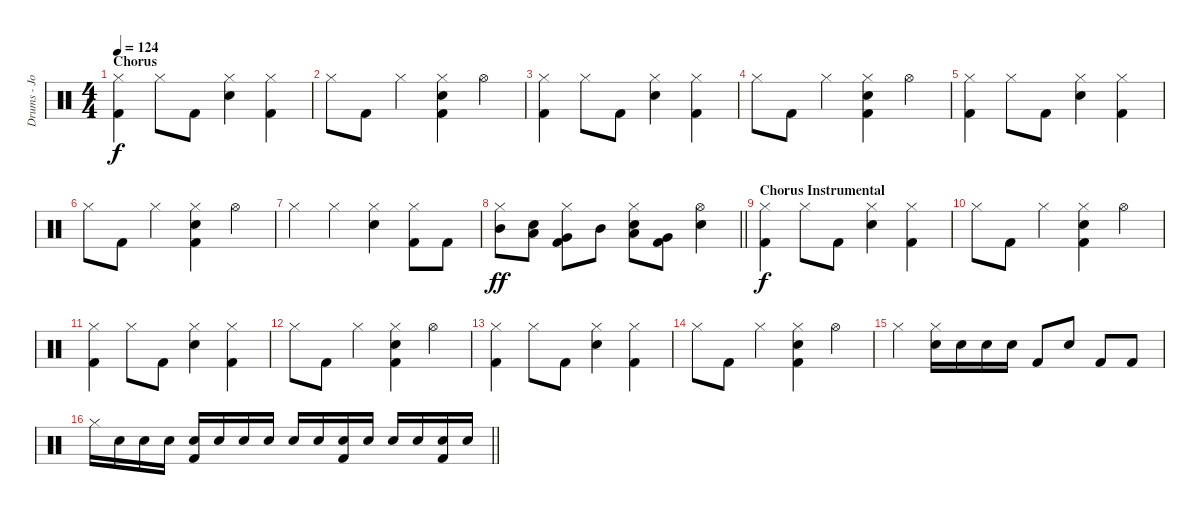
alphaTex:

\track ("Drums - John Humphrey" "Drums - Jo") {instrument percussion}
\staff {score}
\articulation defaults
\ts (4 4)
\section ("" "Chorus")
\tempo 124
\clef neutral
\ks c
("Hi-Hat (closed)" "Kick (hit) 2").4{dy f} "Hi-Hat (closed)".8 "Kick (hit) 2".8 ("Hi-Hat (closed)" "Electric Snare (hit)").4 ("Hi-Hat (closed)" "Kick (hit) 2").4 |
"Hi-Hat (closed)".8 "Kick (hit) 2".8 "Hi-Hat (closed)".4 ("Hi-Hat (closed)" "Electric Snare (hit)" "Kick (hit) 2").4 "Hi-Hat (open)".4 |
("Hi-Hat (closed)" "Kick (hit) 2").4 "Hi-Hat (closed)".8 "Kick (hit) 2".8 ("Hi-Hat (closed)" "Electric Snare (hit)").4 ("Hi-Hat (closed)" "Kick (hit) 2").4 |
"Hi-Hat (closed)".8 "Kick (hit) 2".8 "Hi-Hat (closed)".4 ("Hi-Hat (closed)" "Electric Snare (hit)" "Kick (hit) 2").4 "Hi-Hat (open)".4 |
("Hi-Hat (closed)" "Kick (hit) 2").4 "Hi-Hat (closed)".8 "Kick (hit) 2".8 ("Hi-Hat (closed)" "Electric Snare (hit)").4 ("Hi-Hat (closed)" "Kick (hit) 2").4 |
"Hi-Hat (closed)".8 "Kick (hit) 2".8 "Hi-Hat (closed)".4 ("Hi-Hat (closed)" "Electric Snare (hit)" "Kick (hit) 2").4 "Hi-Hat (open)".4 |
"Hi-Hat (closed)".4 "Hi-Hat (closed)".4 ("Hi-Hat (closed)" "Electric Snare (hit)").4 ("Hi-Hat (closed)" "Kick (hit) 2").8 "Kick (hit) 2".8 |
\barLineRight lightlight
("Hi-Hat (closed)" "Mid Tom (hit)").8{dy ff} ("Low Tom (hit)" "Electric Snare (hit)").8 ("Hi-Hat (closed)" "Very Low Tom (hit)" "Kick (hit) 2").8 "Mid Tom (hit)".8 ("Hi-Hat (closed)" "Low Tom (hit)" "Electric Snare (hit)").8 ("Very Low Tom (hit)" "Kick (hit) 2").8 ("Hi-Hat (open)" "Electric Snare (hit)").4 |
\section ("" "Chorus Instrumental")
("Hi-Hat (closed)" "Kick (hit) 2").4{dy f} "Hi-Hat (closed)".8 "Kick (hit) 2".8 ("Hi-Hat (closed)" "Electric Snare (hit)").4 ("Hi-Hat (closed)" "Kick (hit) 2").4 |
"Hi-Hat (closed)".8 "Kick (hit) 2".8 "Hi-Hat (closed)".4 ("Hi-Hat (closed)" "Electric Snare (hit)" "Kick (hit) 2").4 "Hi-Hat (open)".4 |
("Hi-Hat (closed)" "Kick (hit) 2").4 "Hi-Hat (closed)".8 "Kick (hit) 2".8 ("Hi-Hat (closed)" "Electric Snare (hit)").4 ("Hi-Hat (closed)" "Kick (hit) 2").4 |
"Hi-Hat (closed)".8 "Kick (hit) 2".8 "Hi-Hat (closed)".4 ("Hi-Hat (closed)" "Electric Snare (hit)" "Kick (hit) 2").4 "Hi-Hat (open)".4 |
("Hi-Hat (closed)" "Kick (hit) 2").4 "Hi-Hat (closed)".8 "Kick (hit) 2".8 ("Hi-Hat (closed)" "Electric Snare (hit)").4 ("Hi-Hat (closed)" "Kick (hit) 2").4 |
"Hi-Hat (closed)".8 "Kick (hit) 2".8 "Hi-Hat (closed)".4 ("Hi-Hat (closed)" "Electric Snare (hit)" "Kick (hit) 2").4 "Hi-Hat (open)".4 |
"Hi-Hat (closed)".4 ("Hi-Hat (closed)" "Electric Snare (hit)").16 "Electric Snare (hit)".16 "Electric Snare (hit)".16 "Electric Snare (hit)".16 "Kick (hit) 2".8 "Electric Snare (hit)".8 "Kick (hit) 2".8 "Kick (hit) 2".8 |
\barLineRight lightlight "Hi-Hat (closed)".16 "Electric Snare (hit)".16 "Electric Snare (hit)".16 "Electric Snare (hit)".16
("Electric Snare (hit)" "Kick (hit) 2").16 "Electric Snare (hit)".16 "Electric Snare (hit)".16 "Electric Snare (hit)".16 "Electric Snare (hit)".16 "Electric Snare (hit)".16 ("Electric Snare (hit)" "Kick (hit) 2").16 "Electric Snare (hit)".16 "Electric Snare (hit)".16 "Electric Snare (hit)".16 ("Electric Snare (hit)" "Kick (hit) 2").16 "Electric Snare (hit)".16
